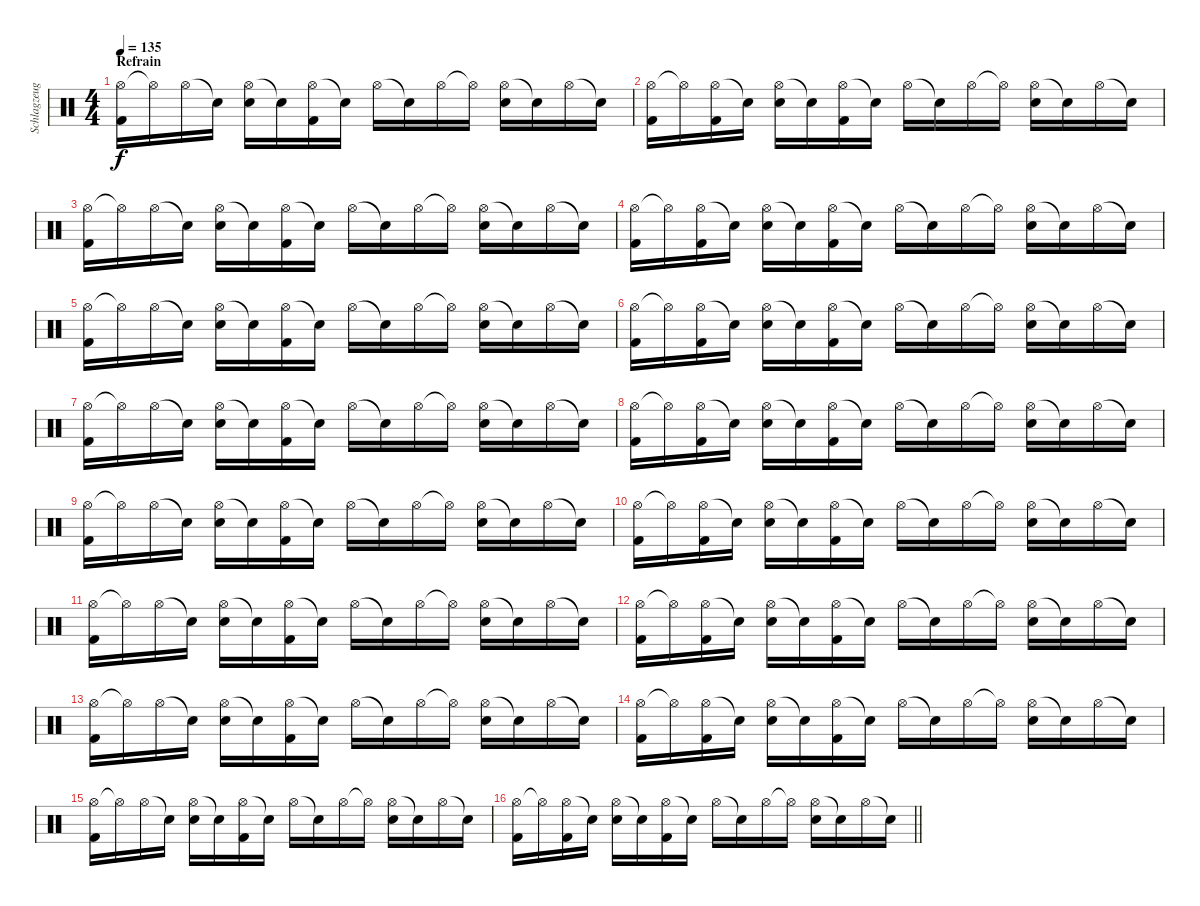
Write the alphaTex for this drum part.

\track ("Schlagzeug" "Schlagzeug") {instrument percussion}
\staff {score}
\articulation defaults
\ts (4 4)
\section ("" "Refrain")
\tempo 135
\clef neutral
\ks c
("Hi-Hat (open)" "Kick (hit) 2").16{dy f} "Hi-Hat (open)"{t}.16 "Hi-Hat (open)".16 "Snare (hit)"{t}.16 ("Hi-Hat (open)" "Snare (hit) 2").16 "Snare (hit)"{t}.16 ("Hi-Hat (open)" "Kick (hit) 2").16 "Snare (hit)"{t}.16 "Hi-Hat (open)".16 "Snare (hit)"{t}.16 "Hi-Hat (open)".16 "Hi-Hat (open)"{t}.16 ("Hi-Hat (open)" "Snare (hit) 2").16 "Snare (hit)"{t}.16 "Hi-Hat (open)".16 "Snare (hit)"{t}.16 |
("Hi-Hat (open)" "Kick (hit) 2").16 "Hi-Hat (open)"{t}.16 ("Hi-Hat (open)" "Kick (hit) 2").16 "Snare (hit)"{t}.16 ("Hi-Hat (open)" "Snare (hit) 2").16 "Snare (hit)"{t}.16 ("Hi-Hat (open)" "Kick (hit) 2").16 "Snare (hit)"{t}.16 "Hi-Hat (open)".16 "Snare (hit)"{t}.16 "Hi-Hat (open)".16 "Hi-Hat (open)"{t}.16 ("Hi-Hat (open)" "Snare (hit) 2").16 "Snare (hit)"{t}.16 "Hi-Hat (open)".16 "Snare (hit)"{t}.16 |
("Hi-Hat (open)" "Kick (hit) 2").16 "Hi-Hat (open)"{t}.16 "Hi-Hat (open)".16 "Snare (hit)"{t}.16 ("Hi-Hat (open)" "Snare (hit) 2").16 "Snare (hit)"{t}.16 ("Hi-Hat (open)" "Kick (hit) 2").16 "Snare (hit)"{t}.16 "Hi-Hat (open)".16 "Snare (hit)"{t}.16 "Hi-Hat (open)".16 "Hi-Hat (open)"{t}.16 ("Hi-Hat (open)" "Snare (hit) 2").16 "Snare (hit)"{t}.16 "Hi-Hat (open)".16 "Snare (hit)"{t}.16 |
("Hi-Hat (open)" "Kick (hit) 2").16 "Hi-Hat (open)"{t}.16 ("Hi-Hat (open)" "Kick (hit) 2").16 "Snare (hit)"{t}.16 ("Hi-Hat (open)" "Snare (hit) 2").16 "Snare (hit)"{t}.16 ("Hi-Hat (open)" "Kick (hit) 2").16 "Snare (hit)"{t}.16 "Hi-Hat (open)".16 "Snare (hit)"{t}.16 "Hi-Hat (open)".16 "Hi-Hat (open)"{t}.16 ("Hi-Hat (open)" "Snare (hit) 2").16 "Snare (hit)"{t}.16 "Hi-Hat (open)".16 "Snare (hit)"{t}.16 |
("Hi-Hat (open)" "Kick (hit) 2").16 "Hi-Hat (open)"{t}.16 "Hi-Hat (open)".16 "Snare (hit)"{t}.16 ("Hi-Hat (open)" "Snare (hit) 2").16 "Snare (hit)"{t}.16 ("Hi-Hat (open)" "Kick (hit) 2").16 "Snare (hit)"{t}.16 "Hi-Hat (open)".16 "Snare (hit)"{t}.16 "Hi-Hat (open)".16 "Hi-Hat (open)"{t}.16 ("Hi-Hat (open)" "Snare (hit) 2").16 "Snare (hit)"{t}.16 "Hi-Hat (open)".16 "Snare (hit)"{t}.16 |
("Hi-Hat (open)" "Kick (hit) 2").16 "Hi-Hat (open)"{t}.16 ("Hi-Hat (open)" "Kick (hit) 2").16 "Snare (hit)"{t}.16 ("Hi-Hat (open)" "Snare (hit) 2").16 "Snare (hit)"{t}.16 ("Hi-Hat (open)" "Kick (hit) 2").16 "Snare (hit)"{t}.16 "Hi-Hat (open)".16 "Snare (hit)"{t}.16 "Hi-Hat (open)".16 "Hi-Hat (open)"{t}.16 ("Hi-Hat (open)" "Snare (hit) 2").16 "Snare (hit)"{t}.16 "Hi-Hat (open)".16 "Snare (hit)"{t}.16 |
("Hi-Hat (open)" "Kick (hit) 2").16 "Hi-Hat (open)"{t}.16 "Hi-Hat (open)".16 "Snare (hit)"{t}.16 ("Hi-Hat (open)" "Snare (hit) 2").16 "Snare (hit)"{t}.16 ("Hi-Hat (open)" "Kick (hit) 2").16 "Snare (hit)"{t}.16 "Hi-Hat (open)".16 "Snare (hit)"{t}.16 "Hi-Hat (open)".16 "Hi-Hat (open)"{t}.16 ("Hi-Hat (open)" "Snare (hit) 2").16 "Snare (hit)"{t}.16 "Hi-Hat (open)".16 "Snare (hit)"{t}.16 |
("Hi-Hat (open)" "Kick (hit) 2").16 "Hi-Hat (open)"{t}.16 ("Hi-Hat (open)" "Kick (hit) 2").16 "Snare (hit)"{t}.16 ("Hi-Hat (open)" "Snare (hit) 2").16 "Snare (hit)"{t}.16 ("Hi-Hat (open)" "Kick (hit) 2").16 "Snare (hit)"{t}.16 "Hi-Hat (open)".16 "Snare (hit)"{t}.16 "Hi-Hat (open)".16 "Hi-Hat (open)"{t}.16 ("Hi-Hat (open)" "Snare (hit) 2").16 "Snare (hit)"{t}.16 "Hi-Hat (open)".16 "Snare (hit)"{t}.16 |
("Hi-Hat (open)" "Kick (hit) 2").16 "Hi-Hat (open)"{t}.16 "Hi-Hat (open)".16 "Snare (hit)"{t}.16 ("Hi-Hat (open)" "Snare (hit) 2").16 "Snare (hit)"{t}.16 ("Hi-Hat (open)" "Kick (hit) 2").16 "Snare (hit)"{t}.16 "Hi-Hat (open)".16 "Snare (hit)"{t}.16 "Hi-Hat (open)".16 "Hi-Hat (open)"{t}.16 ("Hi-Hat (open)" "Snare (hit) 2").16 "Snare (hit)"{t}.16 "Hi-Hat (open)".16 "Snare (hit)"{t}.16 |
("Hi-Hat (open)" "Kick (hit) 2").16 "Hi-Hat (open)"{t}.16 ("Hi-Hat (open)" "Kick (hit) 2").16 "Snare (hit)"{t}.16 ("Hi-Hat (open)" "Snare (hit) 2").16 "Snare (hit)"{t}.16 ("Hi-Hat (open)" "Kick (hit) 2").16 "Snare (hit)"{t}.16 "Hi-Hat (open)".16 "Snare (hit)"{t}.16 "Hi-Hat (open)".16 "Hi-Hat (open)"{t}.16 ("Hi-Hat (open)" "Snare (hit) 2").16 "Snare (hit)"{t}.16 "Hi-Hat (open)".16 "Snare (hit)"{t}.16 |
("Hi-Hat (open)" "Kick (hit) 2").16 "Hi-Hat (open)"{t}.16 "Hi-Hat (open)".16 "Snare (hit)"{t}.16 ("Hi-Hat (open)" "Snare (hit) 2").16 "Snare (hit)"{t}.16 ("Hi-Hat (open)" "Kick (hit) 2").16 "Snare (hit)"{t}.16 "Hi-Hat (open)".16 "Snare (hit)"{t}.16 "Hi-Hat (open)".16 "Hi-Hat (open)"{t}.16 ("Hi-Hat (open)" "Snare (hit) 2").16 "Snare (hit)"{t}.16 "Hi-Hat (open)".16 "Snare (hit)"{t}.16 |
("Hi-Hat (open)" "Kick (hit) 2").16 "Hi-Hat (open)"{t}.16 ("Hi-Hat (open)" "Kick (hit) 2").16 "Snare (hit)"{t}.16 ("Hi-Hat (open)" "Snare (hit) 2").16 "Snare (hit)"{t}.16 ("Hi-Hat (open)" "Kick (hit) 2").16 "Snare (hit)"{t}.16 "Hi-Hat (open)".16 "Snare (hit)"{t}.16 "Hi-Hat (open)".16 "Hi-Hat (open)"{t}.16 ("Hi-Hat (open)" "Snare (hit) 2").16 "Snare (hit)"{t}.16 "Hi-Hat (open)".16 "Snare (hit)"{t}.16 |
("Hi-Hat (open)" "Kick (hit) 2").16 "Hi-Hat (open)"{t}.16 "Hi-Hat (open)".16 "Snare (hit)"{t}.16 ("Hi-Hat (open)" "Snare (hit) 2").16 "Snare (hit)"{t}.16 ("Hi-Hat (open)" "Kick (hit) 2").16 "Snare (hit)"{t}.16 "Hi-Hat (open)".16 "Snare (hit)"{t}.16 "Hi-Hat (open)".16 "Hi-Hat (open)"{t}.16 ("Hi-Hat (open)" "Snare (hit) 2").16 "Snare (hit)"{t}.16 "Hi-Hat (open)".16 "Snare (hit)"{t}.16 |
("Hi-Hat (open)" "Kick (hit) 2").16 "Hi-Hat (open)"{t}.16 ("Hi-Hat (open)" "Kick (hit) 2").16 "Snare (hit)"{t}.16 ("Hi-Hat (open)" "Snare (hit) 2").16 "Snare (hit)"{t}.16 ("Hi-Hat (open)" "Kick (hit) 2").16 "Snare (hit)"{t}.16 "Hi-Hat (open)".16 "Snare (hit)"{t}.16 "Hi-Hat (open)".16 "Hi-Hat (open)"{t}.16 ("Hi-Hat (open)" "Snare (hit) 2").16 "Snare (hit)"{t}.16 "Hi-Hat (open)".16 "Snare (hit)"{t}.16 |
("Hi-Hat (open)" "Kick (hit) 2").16 "Hi-Hat (open)"{t}.16 "Hi-Hat (open)".16 "Snare (hit)"{t}.16 ("Hi-Hat (open)" "Snare (hit) 2").16 "Snare (hit)"{t}.16 ("Hi-Hat (open)" "Kick (hit) 2").16 "Snare (hit)"{t}.16 "Hi-Hat (open)".16 "Snare (hit)"{t}.16 "Hi-Hat (open)".16 "Hi-Hat (open)"{t}.16 ("Hi-Hat (open)" "Snare (hit) 2").16 "Snare (hit)"{t}.16 "Hi-Hat (open)".16 "Snare (hit)"{t}.16 |
\barLineRight lightlight
("Hi-Hat (open)" "Kick (hit) 2").16 "Hi-Hat (open)"{t}.16 ("Hi-Hat (open)" "Kick (hit) 2").16 "Snare (hit)"{t}.16 ("Hi-Hat (open)" "Snare (hit) 2").16 "Snare (hit)"{t}.16 ("Hi-Hat (open)" "Kick (hit) 2").16 "Snare (hit)"{t}.16 "Hi-Hat (open)".16 "Snare (hit)"{t}.16 "Hi-Hat (open)".16 "Hi-Hat (open)"{t}.16 ("Hi-Hat (open)" "Snare (hit) 2").16 "Snare (hit)"{t}.16 "Hi-Hat (open)".16 "Snare (hit)"{t}.16
